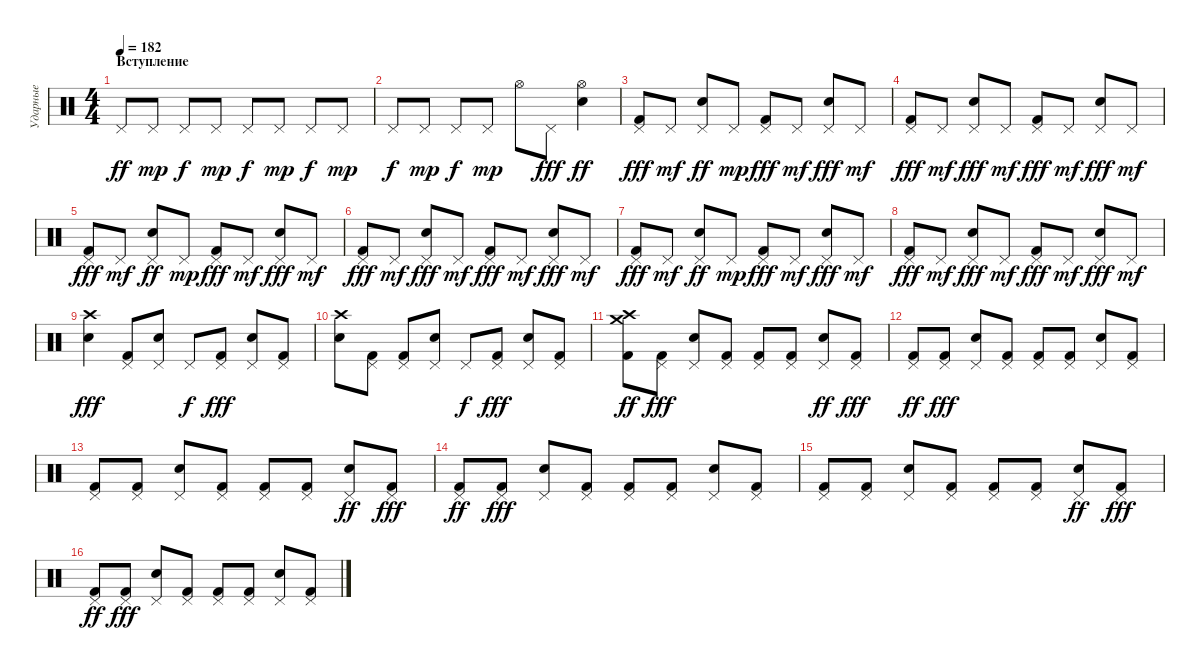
\track ("Ударные" "Ударные") {instrument percussion}
\staff {score}
\articulation defaults
\ts (4 4)
\section ("" "Вступление")
\tempo 182
\clef neutral
\ks c "Pedal Hi-Hat (hit)".8{dy ff} "Pedal Hi-Hat (hit)".8{dy mp} "Pedal Hi-Hat (hit)".8{dy f} "Pedal Hi-Hat (hit)".8{dy mp} "Pedal Hi-Hat (hit)".8{dy f} "Pedal Hi-Hat (hit)".8{dy mp} "Pedal Hi-Hat (hit)".8{dy f} "Pedal Hi-Hat (hit)".8{dy mp}
|
"Pedal Hi-Hat (hit)".8{dy f} "Pedal Hi-Hat (hit)".8{dy mp} "Pedal Hi-Hat (hit)".8{dy f} "Pedal Hi-Hat (hit)".8{dy mp} "Hi-Hat (open)".8 "Pedal Hi-Hat (hit)".8{dy fff} ("Hi-Hat (open)" "Electric Snare (hit)").4{dy ff} |
("Pedal Hi-Hat (hit)" "Kick (hit) 2").8{dy fff} "Pedal Hi-Hat (hit)".8{dy mf} ("Electric Snare (hit)" "Pedal Hi-Hat (hit)").8{dy ff} "Pedal Hi-Hat (hit)".8{dy mp} ("Pedal Hi-Hat (hit)" "Kick (hit) 2").8{dy fff} "Pedal Hi-Hat (hit)".8{dy mf} ("Pedal Hi-Hat (hit)" "Electric Snare (hit)").8{dy fff} "Pedal Hi-Hat (hit)".8{dy mf} |
("Pedal Hi-Hat (hit)" "Kick (hit) 2").8{dy fff} "Pedal Hi-Hat (hit)".8{dy mf} ("Pedal Hi-Hat (hit)" "Electric Snare (hit)").8{dy fff} "Pedal Hi-Hat (hit)".8{dy mf} ("Pedal Hi-Hat (hit)" "Kick (hit) 2").8{dy fff} "Pedal Hi-Hat (hit)".8{dy mf} ("Pedal Hi-Hat (hit)" "Electric Snare (hit)").8{dy fff} "Pedal Hi-Hat (hit)".8{dy mf} |
("Pedal Hi-Hat (hit)" "Kick (hit) 2").8{dy fff} "Pedal Hi-Hat (hit)".8{dy mf} ("Electric Snare (hit)" "Pedal Hi-Hat (hit)").8{dy ff} "Pedal Hi-Hat (hit)".8{dy mp} ("Pedal Hi-Hat (hit)" "Kick (hit) 2").8{dy fff} "Pedal Hi-Hat (hit)".8{dy mf} ("Pedal Hi-Hat (hit)" "Electric Snare (hit)").8{dy fff} "Pedal Hi-Hat (hit)".8{dy mf} |
("Pedal Hi-Hat (hit)" "Kick (hit) 2").8{dy fff} "Pedal Hi-Hat (hit)".8{dy mf} ("Pedal Hi-Hat (hit)" "Electric Snare (hit)").8{dy fff} "Pedal Hi-Hat (hit)".8{dy mf} ("Pedal Hi-Hat (hit)" "Kick (hit) 2").8{dy fff} "Pedal Hi-Hat (hit)".8{dy mf} ("Pedal Hi-Hat (hit)" "Electric Snare (hit)").8{dy fff} "Pedal Hi-Hat (hit)".8{dy mf} |
("Pedal Hi-Hat (hit)" "Kick (hit) 2").8{dy fff} "Pedal Hi-Hat (hit)".8{dy mf} ("Electric Snare (hit)" "Pedal Hi-Hat (hit)").8{dy ff} "Pedal Hi-Hat (hit)".8{dy mp} ("Pedal Hi-Hat (hit)" "Kick (hit) 2").8{dy fff} "Pedal Hi-Hat (hit)".8{dy mf} ("Pedal Hi-Hat (hit)" "Electric Snare (hit)").8{dy fff} "Pedal Hi-Hat (hit)".8{dy mf} |
("Pedal Hi-Hat (hit)" "Kick (hit) 2").8{dy fff} "Pedal Hi-Hat (hit)".8{dy mf} ("Pedal Hi-Hat (hit)" "Electric Snare (hit)").8{dy fff} "Pedal Hi-Hat (hit)".8{dy mf} ("Pedal Hi-Hat (hit)" "Kick (hit) 2").8{dy fff} "Pedal Hi-Hat (hit)".8{dy mf} ("Pedal Hi-Hat (hit)" "Electric Snare (hit)").8{dy fff} "Pedal Hi-Hat (hit)".8{dy mf} |
("Crash high (hit)" "Electric Snare (hit)").4{dy fff} ("Pedal Hi-Hat (hit)" "Kick (hit) 2").8 ("Pedal Hi-Hat (hit)" "Electric Snare (hit)").8 "Pedal Hi-Hat (hit)".8{dy f} ("Pedal Hi-Hat (hit)" "Kick (hit) 2").8{dy fff} ("Pedal Hi-Hat (hit)" "Electric Snare (hit)").8 ("Pedal Hi-Hat (hit)" "Kick (hit) 2").8 |
("Electric Snare (hit)" "Crash high (hit)").8 ("Pedal Hi-Hat (hit)" "Kick (hit) 2").8 ("Pedal Hi-Hat (hit)" "Kick (hit) 2").8 ("Pedal Hi-Hat (hit)" "Electric Snare (hit)").8 "Pedal Hi-Hat (hit)".8{dy f} ("Pedal Hi-Hat (hit)" "Kick (hit) 2").8{dy fff} ("Pedal Hi-Hat (hit)" "Electric Snare (hit)").8 ("Pedal Hi-Hat (hit)" "Kick (hit) 2").8 |
("Crash medium (hit)" "Kick (hit) 2" "Crash high (hit)").8{dy ff} ("Pedal Hi-Hat (hit)" "Kick (hit) 2").8{dy fff} ("Pedal Hi-Hat (hit)" "Electric Snare (hit)").8 ("Pedal Hi-Hat (hit)" "Kick (hit) 2").8 ("Pedal Hi-Hat (hit)" "Kick (hit) 2").8 ("Pedal Hi-Hat (hit)" "Kick (hit) 2").8 ("Electric Snare (hit)" "Pedal Hi-Hat (hit)").8{dy ff} ("Pedal Hi-Hat (hit)" "Kick (hit) 2").8{dy fff} |
("Kick (hit) 2" "Pedal Hi-Hat (hit)").8{dy ff} ("Pedal Hi-Hat (hit)" "Kick (hit) 2").8{dy fff} ("Pedal Hi-Hat (hit)" "Electric Snare (hit)").8 ("Pedal Hi-Hat (hit)" "Kick (hit) 2").8 ("Pedal Hi-Hat (hit)" "Kick (hit) 2").8 ("Pedal Hi-Hat (hit)" "Kick (hit) 2").8 ("Pedal Hi-Hat (hit)" "Electric Snare (hit)").8 ("Pedal Hi-Hat (hit)" "Kick (hit) 2").8 |
("Pedal Hi-Hat (hit)" "Kick (hit) 2").8 ("Pedal Hi-Hat (hit)" "Kick (hit) 2").8 ("Pedal Hi-Hat (hit)" "Electric Snare (hit)").8 ("Pedal Hi-Hat (hit)" "Kick (hit) 2").8 ("Pedal Hi-Hat (hit)" "Kick (hit) 2").8 ("Pedal Hi-Hat (hit)" "Kick (hit) 2").8 ("Electric Snare (hit)" "Pedal Hi-Hat (hit)").8{dy ff} ("Pedal Hi-Hat (hit)" "Kick (hit) 2").8{dy fff} |
("Kick (hit) 2" "Pedal Hi-Hat (hit)").8{dy ff} ("Pedal Hi-Hat (hit)" "Kick (hit) 2").8{dy fff} ("Pedal Hi-Hat (hit)" "Electric Snare (hit)").8 ("Pedal Hi-Hat (hit)" "Kick (hit) 2").8 ("Pedal Hi-Hat (hit)" "Kick (hit) 2").8 ("Pedal Hi-Hat (hit)" "Kick (hit) 2").8 ("Pedal Hi-Hat (hit)" "Electric Snare (hit)").8 ("Pedal Hi-Hat (hit)" "Kick (hit) 2").8 |
("Pedal Hi-Hat (hit)" "Kick (hit) 2").8 ("Pedal Hi-Hat (hit)" "Kick (hit) 2").8 ("Pedal Hi-Hat (hit)" "Electric Snare (hit)").8 ("Pedal Hi-Hat (hit)" "Kick (hit) 2").8 ("Pedal Hi-Hat (hit)" "Kick (hit) 2").8 ("Pedal Hi-Hat (hit)" "Kick (hit) 2").8 ("Electric Snare (hit)" "Pedal Hi-Hat (hit)").8{dy ff} ("Pedal Hi-Hat (hit)" "Kick (hit) 2").8{dy fff} |
("Kick (hit) 2" "Pedal Hi-Hat (hit)").8{dy ff} ("Pedal Hi-Hat (hit)" "Kick (hit) 2").8{dy fff} ("Pedal Hi-Hat (hit)" "Electric Snare (hit)").8 ("Pedal Hi-Hat (hit)" "Kick (hit) 2").8 ("Pedal Hi-Hat (hit)" "Kick (hit) 2").8 ("Pedal Hi-Hat (hit)" "Kick (hit) 2").8 ("Pedal Hi-Hat (hit)" "Electric Snare (hit)").8 ("Pedal Hi-Hat (hit)" "Kick (hit) 2").8
